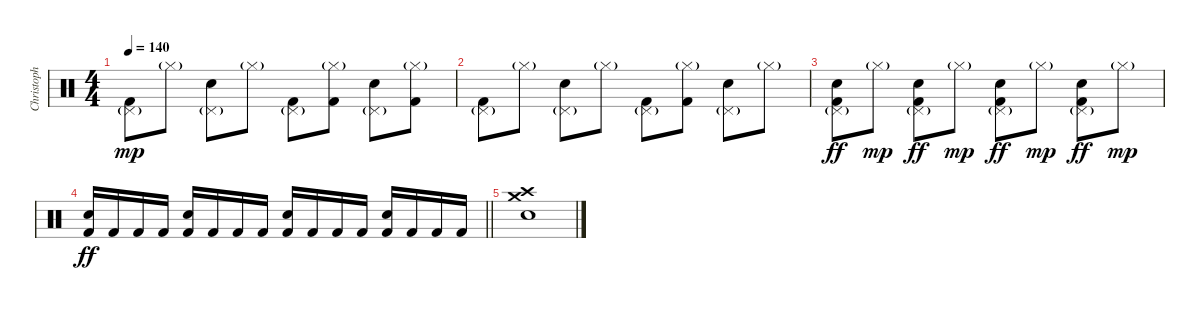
\track ("Christoph" "Christoph") {instrument percussion}
\staff {score}
\articulation defaults
\ts (4 4)
\tempo 140
\clef neutral
\ks c
("Pedal Hi-Hat (hit)"{g} "Kick (hit) 2").8{dy mp} "Hi-Hat (closed)"{g}.8 ("Pedal Hi-Hat (hit)"{g} "Electric Snare (hit)").8 "Hi-Hat (closed)"{g}.8 ("Pedal Hi-Hat (hit)"{g} "Kick (hit) 2").8 ("Hi-Hat (closed)"{g} "Kick (hit) 2").8 ("Pedal Hi-Hat (hit)"{g} "Electric Snare (hit)").8 ("Hi-Hat (closed)"{g} "Kick (hit) 2").8 |
("Pedal Hi-Hat (hit)"{g} "Kick (hit) 2").8 "Hi-Hat (closed)"{g}.8 ("Pedal Hi-Hat (hit)"{g} "Electric Snare (hit)").8 "Hi-Hat (closed)"{g}.8 ("Pedal Hi-Hat (hit)"{g} "Kick (hit) 2").8 ("Hi-Hat (closed)"{g} "Kick (hit) 2").8 ("Pedal Hi-Hat (hit)"{g} "Electric Snare (hit)").8 "Hi-Hat (closed)"{g}.8 |
("Pedal Hi-Hat (hit)"{g} "Electric Snare (hit)" "Kick (hit) 2").8{dy ff} "Hi-Hat (closed)"{g}.8{dy mp} ("Pedal Hi-Hat (hit)"{g} "Electric Snare (hit)" "Kick (hit) 2").8{dy ff} "Hi-Hat (closed)"{g}.8{dy mp} ("Pedal Hi-Hat (hit)"{g} "Electric Snare (hit)" "Kick (hit) 2").8{dy ff} "Hi-Hat (closed)"{g}.8{dy mp} ("Pedal Hi-Hat (hit)"{g} "Electric Snare (hit)" "Kick (hit) 2").8{dy ff} "Hi-Hat (closed)"{g}.8{dy mp} |
\barLineRight lightlight
("Electric Snare (hit)" "Kick (hit) 2").16{dy ff} "Kick (hit) 2".16 "Kick (hit) 2".16 "Kick (hit) 2".16 ("Electric Snare (hit)" "Kick (hit) 2").16 "Kick (hit) 2".16 "Kick (hit) 2".16 "Kick (hit) 2".16 ("Electric Snare (hit)" "Kick (hit) 2").16 "Kick (hit) 2".16 "Kick (hit) 2".16 "Kick (hit) 2".16 ("Electric Snare (hit)" "Kick (hit) 2").16 "Kick (hit) 2".16 "Kick (hit) 2".16 "Kick (hit) 2".16 |
("Crash high (hit)" "Crash medium (hit)" "Electric Snare (hit)").1
